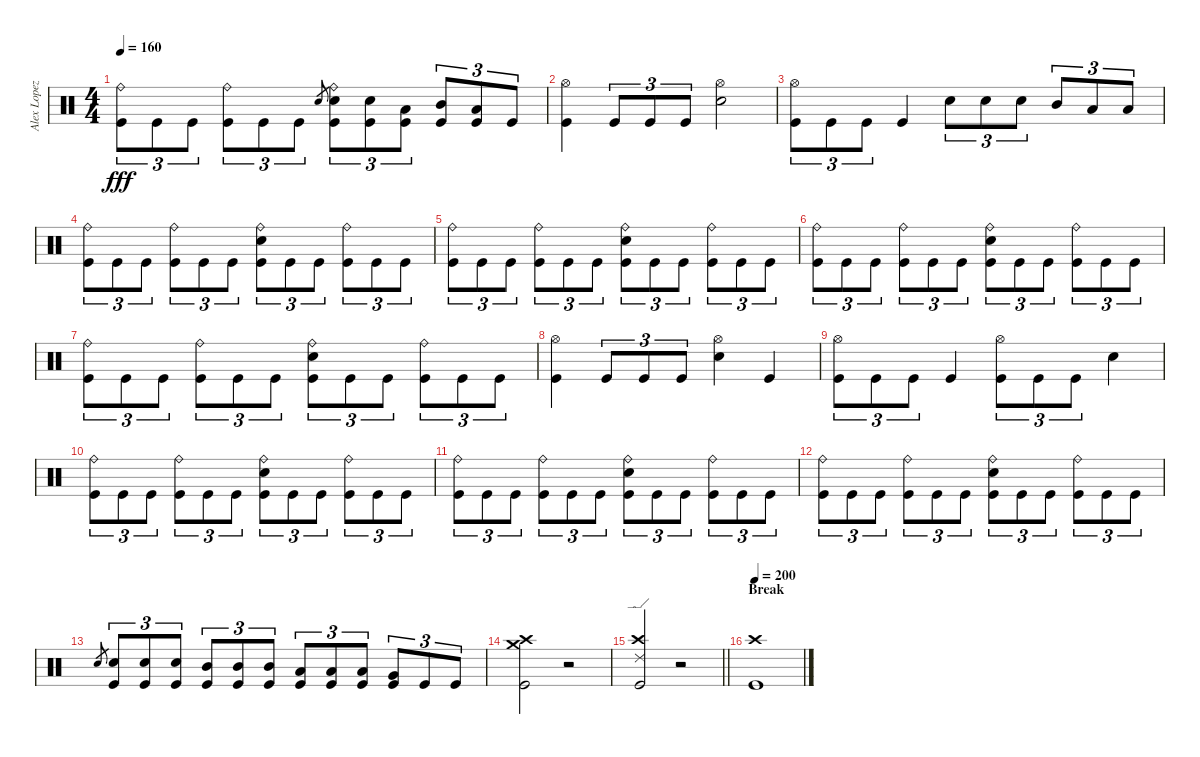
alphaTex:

\track ("Alex Lopez" "Alex Lopez") {instrument percussion}
\staff {score}
\articulation defaults
\ts (4 4)
\tempo 160
\clef neutral
\ks c
("Ride (bell)" "Kick (hit)").8{tu (3 2) dy fff} "Kick (hit)".8{tu (3 2)} "Kick (hit)".8{tu (3 2)} ("Ride (bell)" "Kick (hit)").8{tu (3 2)} "Kick (hit)".8{tu (3 2)} "Kick (hit)".8{tu (3 2)} "Snare (hit)".8{gr} ("Ride (bell)" "Snare (hit) 2" "Kick (hit)").8{tu (3 2)} ("Snare (hit) 2" "Kick (hit)").8{tu (3 2)} ("Low Tom (hit)" "Kick (hit)").8{tu (3 2)} ("Mid Tom (hit)" "Kick (hit)").8{tu (3 2)} ("Low Tom (hit)" "Kick (hit)").8{tu (3 2)} "Kick (hit)".8{tu (3 2)} |
("Hi-Hat (open)" "Kick (hit)").4 "Kick (hit)".8{tu (3 2)} "Kick (hit)".8{tu (3 2)} "Kick (hit)".8{tu (3 2)} ("Hi-Hat (open)" "Snare (hit) 2").2 |
("Hi-Hat (open)" "Kick (hit)").8{tu (3 2)} "Kick (hit)".8{tu (3 2)} "Kick (hit)".8{tu (3 2)} "Kick (hit)".4 "Snare (hit) 2".8{tu (3 2)} "Snare (hit) 2".8{tu (3 2)} "Snare (hit) 2".8{tu (3 2)} "Mid Tom (hit)".8{tu (3 2)} "Low Tom (hit)".8{tu (3 2)} "Low Tom (hit)".8{tu (3 2)} |
("Ride (bell)" "Kick (hit)").8{tu (3 2)} "Kick (hit)".8{tu (3 2)} "Kick (hit)".8{tu (3 2)} ("Ride (bell)" "Kick (hit)").8{tu (3 2)} "Kick (hit)".8{tu (3 2)} "Kick (hit)".8{tu (3 2)} ("Ride (bell)" "Snare (hit) 2" "Kick (hit)").8{tu (3 2)} "Kick (hit)".8{tu (3 2)} "Kick (hit)".8{tu (3 2)} ("Ride (bell)" "Kick (hit)").8{tu (3 2)} "Kick (hit)".8{tu (3 2)} "Kick (hit)".8{tu (3 2)} |
("Ride (bell)" "Kick (hit)").8{tu (3 2)} "Kick (hit)".8{tu (3 2)} "Kick (hit)".8{tu (3 2)} ("Ride (bell)" "Kick (hit)").8{tu (3 2)} "Kick (hit)".8{tu (3 2)} "Kick (hit)".8{tu (3 2)} ("Ride (bell)" "Snare (hit) 2" "Kick (hit)").8{tu (3 2)} "Kick (hit)".8{tu (3 2)} "Kick (hit)".8{tu (3 2)} ("Ride (bell)" "Kick (hit)").8{tu (3 2)} "Kick (hit)".8{tu (3 2)} "Kick (hit)".8{tu (3 2)} |
("Ride (bell)" "Kick (hit)").8{tu (3 2)} "Kick (hit)".8{tu (3 2)} "Kick (hit)".8{tu (3 2)} ("Ride (bell)" "Kick (hit)").8{tu (3 2)} "Kick (hit)".8{tu (3 2)} "Kick (hit)".8{tu (3 2)} ("Ride (bell)" "Snare (hit) 2" "Kick (hit)").8{tu (3 2)} "Kick (hit)".8{tu (3 2)} "Kick (hit)".8{tu (3 2)} ("Ride (bell)" "Kick (hit)").8{tu (3 2)} "Kick (hit)".8{tu (3 2)} "Kick (hit)".8{tu (3 2)} |
("Ride (bell)" "Kick (hit)").8{tu (3 2)} "Kick (hit)".8{tu (3 2)} "Kick (hit)".8{tu (3 2)} ("Ride (bell)" "Kick (hit)").8{tu (3 2)} "Kick (hit)".8{tu (3 2)} "Kick (hit)".8{tu (3 2)} ("Ride (bell)" "Snare (hit) 2" "Kick (hit)").8{tu (3 2)} "Kick (hit)".8{tu (3 2)} "Kick (hit)".8{tu (3 2)} ("Ride (bell)" "Kick (hit)").8{tu (3 2)} "Kick (hit)".8{tu (3 2)} "Kick (hit)".8{tu (3 2)} |
("Hi-Hat (open)" "Kick (hit)").4 "Kick (hit)".8{tu (3 2)} "Kick (hit)".8{tu (3 2)} "Kick (hit)".8{tu (3 2)} ("Hi-Hat (open)" "Snare (hit) 2").4 "Kick (hit)".4 |
("Hi-Hat (open)" "Kick (hit)").8{tu (3 2)} "Kick (hit)".8{tu (3 2)} "Kick (hit)".8{tu (3 2)} "Kick (hit)".4 ("Hi-Hat (open)" "Kick (hit)").8{tu (3 2)} "Kick (hit)".8{tu (3 2)} "Kick (hit)".8{tu (3 2)} "Snare (hit) 2".4 |
("Ride (bell)" "Kick (hit)").8{tu (3 2)} "Kick (hit)".8{tu (3 2)} "Kick (hit)".8{tu (3 2)} ("Ride (bell)" "Kick (hit)").8{tu (3 2)} "Kick (hit)".8{tu (3 2)} "Kick (hit)".8{tu (3 2)} ("Ride (bell)" "Snare (hit) 2" "Kick (hit)").8{tu (3 2)} "Kick (hit)".8{tu (3 2)} "Kick (hit)".8{tu (3 2)} ("Ride (bell)" "Kick (hit)").8{tu (3 2)} "Kick (hit)".8{tu (3 2)} "Kick (hit)".8{tu (3 2)} |
("Ride (bell)" "Kick (hit)").8{tu (3 2)} "Kick (hit)".8{tu (3 2)} "Kick (hit)".8{tu (3 2)} ("Ride (bell)" "Kick (hit)").8{tu (3 2)} "Kick (hit)".8{tu (3 2)} "Kick (hit)".8{tu (3 2)} ("Ride (bell)" "Snare (hit) 2" "Kick (hit)").8{tu (3 2)} "Kick (hit)".8{tu (3 2)} "Kick (hit)".8{tu (3 2)} ("Ride (bell)" "Kick (hit)").8{tu (3 2)} "Kick (hit)".8{tu (3 2)} "Kick (hit)".8{tu (3 2)} |
("Ride (bell)" "Kick (hit)").8{tu (3 2)} "Kick (hit)".8{tu (3 2)} "Kick (hit)".8{tu (3 2)} ("Ride (bell)" "Kick (hit)").8{tu (3 2)} "Kick (hit)".8{tu (3 2)} "Kick (hit)".8{tu (3 2)} ("Ride (bell)" "Snare (hit) 2" "Kick (hit)").8{tu (3 2)} "Kick (hit)".8{tu (3 2)} "Kick (hit)".8{tu (3 2)} ("Ride (bell)" "Kick (hit)").8{tu (3 2)} "Kick (hit)".8{tu (3 2)} "Kick (hit)".8{tu (3 2)} |
"Snare (hit)".8{gr} ("Snare (hit) 2" "Kick (hit)").8{tu (3 2)} ("Snare (hit) 2" "Kick (hit)").8{tu (3 2)} ("Snare (hit) 2" "Kick (hit)").8{tu (3 2)} ("Mid Tom (hit)" "Kick (hit)").8{tu (3 2)} ("Mid Tom (hit)" "Kick (hit)").8{tu (3 2)} ("Mid Tom (hit)" "Kick (hit)").8{tu (3 2)} ("Low Tom (hit)" "Kick (hit)").8{tu (3 2)} ("Low Tom (hit)" "Kick (hit)").8{tu (3 2)} ("Low Tom (hit)" "Kick (hit)").8{tu (3 2)} ("Very Low Tom (hit)" "Kick (hit)").8{tu (3 2)} "Kick (hit)".8{tu (3 2)} "Kick (hit)".8{tu (3 2)} |
("Kick (hit)" "Crash high (hit)" "Crash medium (hit)").2 r.2 |
\barLineRight lightlight
("Crash high (hit)" "Kick (hit)" "Ride (edge) 2").2 r.2 |
\section ("" "Break")
\tempo 200
("Crash high (hit)" "Kick (hit)").1
